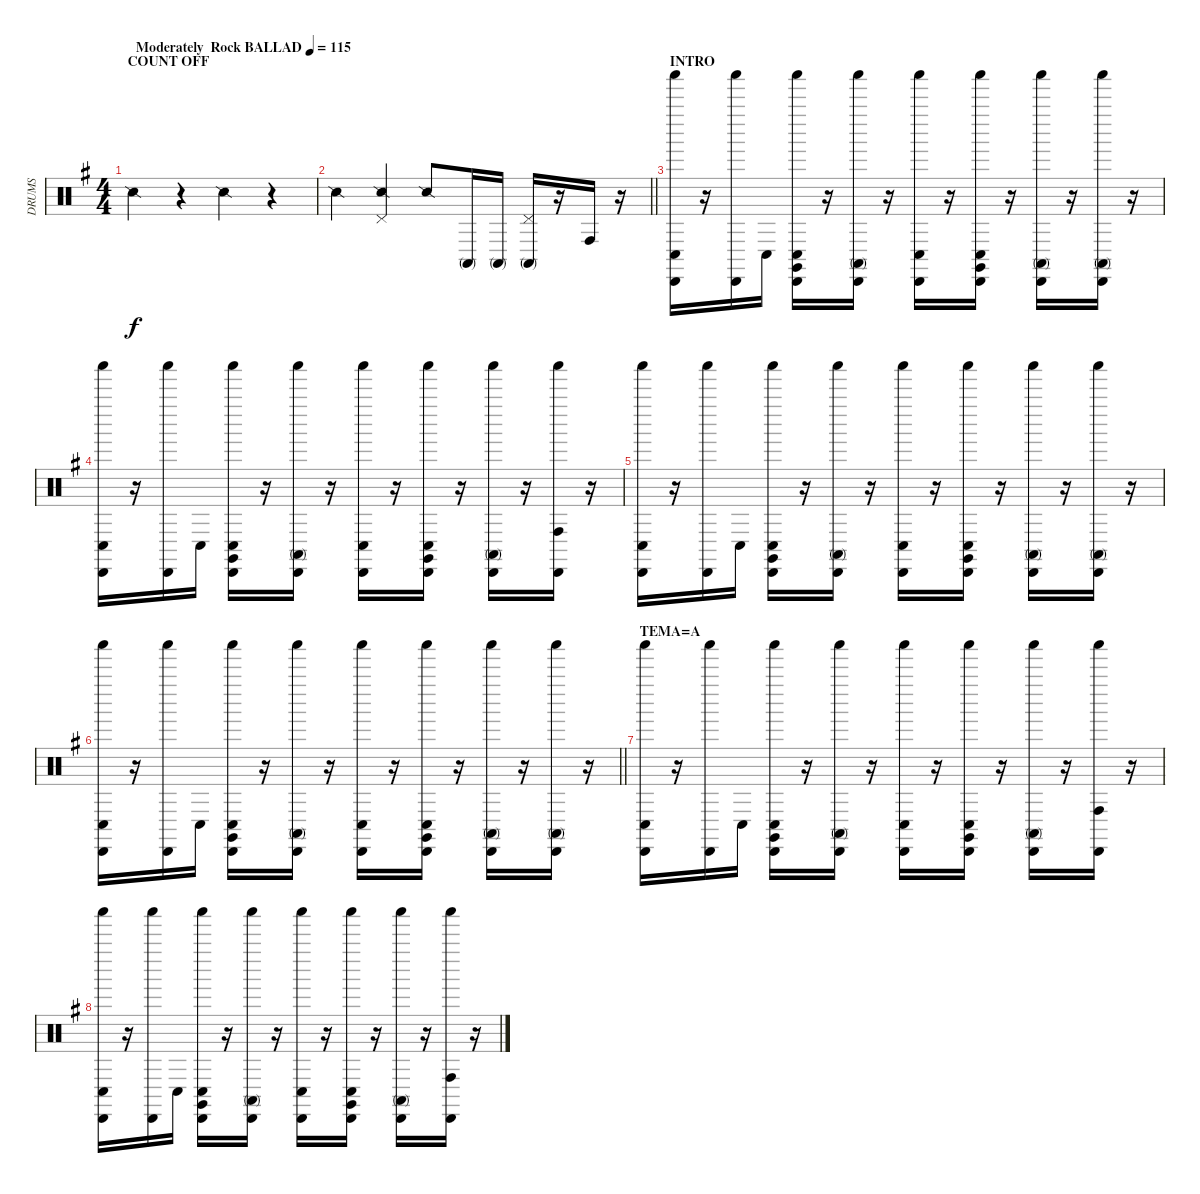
\track ("DRUMS" "DRUMS") {instrument percussion}
\staff {score}
\articulation defaults
\ts (4 4)
\section ("" "COUNT OFF")
\tempo (115 "Moderately  Rock BALLAD")
\clef neutral
\ks eminor "Snare (side stick) 2".4{dy f}
r.4 "Snare (side stick) 2".4 r.4 |
\barLineRight lightlight "Snare (side stick) 2".4
("Snare (side stick) 2" "Pedal Hi-Hat (hit)").4 "Snare (side stick) 2".8 "Conga high (mute)".16 "Conga high (mute)".16 ("Conga high (mute)" "Pedal Hi-Hat (hit)").16 r.16 "Conga high (hit)".16 r.16 |
\section ("" "INTRO")
("Conga low (hit)" "Cabasa (hit)" "Shaker (hit)").16 r.16 ("Cabasa (hit)" "Shaker (hit)").16 "Conga low (hit)".16 ("Claves (hit)" "Cabasa (hit)" "Conga low (hit)" "Shaker (hit)").16 r.16 ("Shaker (hit)" "Cabasa (hit)" "Conga high (mute)").16 r.16 ("Conga low (hit)" "Shaker (hit)" "Cabasa (hit)").16 r.16 ("Cabasa (hit)" "Conga low (hit)" "Claves (hit)" "Shaker (hit)").16 r.16 ("Shaker (hit)" "Conga high (mute)" "Cabasa (hit)").16 r.16 ("Shaker (hit)" "Conga high (mute)" "Cabasa (hit)").16 r.16 |
("Conga low (hit)" "Cabasa (hit)" "Shaker (hit)").16 r.16 ("Cabasa (hit)" "Shaker (hit)").16 "Conga low (hit)".16 ("Claves (hit)" "Shaker (hit)" "Conga low (hit)" "Cabasa (hit)").16 r.16 ("Cabasa (hit)" "Shaker (hit)" "Conga high (mute)").16 r.16 ("Conga low (hit)" "Cabasa (hit)" "Shaker (hit)").16 r.16 ("Shaker (hit)" "Cabasa (hit)" "Conga low (hit)" "Claves (hit)").16 r.16 ("Cabasa (hit)" "Conga high (mute)" "Shaker (hit)").16 r.16 ("Cabasa (hit)" "Conga high (hit)" "Shaker (hit)").16 r.16 |
("Shaker (hit)" "Cabasa (hit)" "Conga low (hit)").16 r.16 ("Shaker (hit)" "Cabasa (hit)").16 "Conga low (hit)".16 ("Cabasa (hit)" "Conga low (hit)" "Claves (hit)" "Shaker (hit)").16 r.16 ("Shaker (hit)" "Conga high (mute)" "Cabasa (hit)").16 r.16 ("Shaker (hit)" "Cabasa (hit)" "Conga low (hit)").16 r.16 ("Claves (hit)" "Conga low (hit)" "Cabasa (hit)" "Shaker (hit)").16 r.16 ("Shaker (hit)" "Cabasa (hit)" "Conga high (mute)").16 r.16 ("Cabasa (hit)" "Shaker (hit)" "Conga high (mute)").16 r.16 |
\barLineRight lightlight
("Conga low (hit)" "Cabasa (hit)" "Shaker (hit)").16 r.16 ("Cabasa (hit)" "Shaker (hit)").16 "Conga low (hit)".16 ("Shaker (hit)" "Cabasa (hit)" "Claves (hit)" "Conga low (hit)").16 r.16 ("Shaker (hit)" "Cabasa (hit)" "Conga high (mute)").16 r.16 ("Conga low (hit)" "Cabasa (hit)" "Shaker (hit)").16 r.16 ("Conga low (hit)" "Cabasa (hit)" "Claves (hit)" "Shaker (hit)").16 r.16 ("Shaker (hit)" "Cabasa (hit)" "Conga high (mute)").16 r.16 ("Cabasa (hit)" "Shaker (hit)" "Conga high (mute)").16 r.16 |
\section ("" "TEMA=A")
("Conga low (hit)" "Cabasa (hit)" "Shaker (hit)").16 r.16 ("Shaker (hit)" "Cabasa (hit)").16 "Conga low (hit)".16 ("Shaker (hit)" "Cabasa (hit)" "Claves (hit)" "Conga low (hit)").16 r.16 ("Conga high (mute)" "Cabasa (hit)" "Shaker (hit)").16 r.16 ("Conga low (hit)" "Shaker (hit)" "Cabasa (hit)").16 r.16 ("Conga low (hit)" "Cabasa (hit)" "Shaker (hit)" "Claves (hit)").16 r.16 ("Shaker (hit)" "Cabasa (hit)" "Conga high (mute)").16 r.16 ("Shaker (hit)" "Cabasa (hit)" "Conga high (hit)").16 r.16 |
("Cabasa (hit)" "Shaker (hit)" "Conga low (hit)").16 r.16 ("Shaker (hit)" "Cabasa (hit)").16 "Conga low (hit)".16 ("Conga low (hit)" "Cabasa (hit)" "Claves (hit)" "Shaker (hit)").16 r.16 ("Cabasa (hit)" "Conga high (mute)" "Shaker (hit)").16 r.16 ("Shaker (hit)" "Conga low (hit)" "Cabasa (hit)").16 r.16 ("Shaker (hit)" "Claves (hit)" "Conga low (hit)" "Cabasa (hit)").16 r.16 ("Conga high (mute)" "Cabasa (hit)" "Shaker (hit)").16 r.16 ("Shaker (hit)" "Cabasa (hit)" "Conga high (hit)").16 r.16
